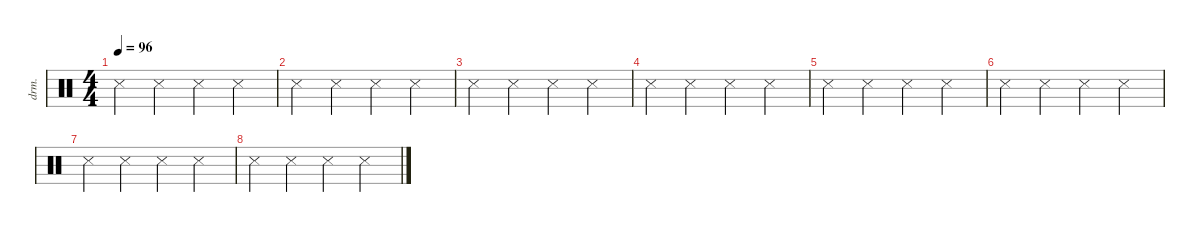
\defaultSystemsLayout 4
\hideDynamics
\bracketExtendMode nobrackets
\otherSystemsTrackNameOrientation horizontal
\track ("Drumkit" "drm.") {instrument percussion}
\staff {score}
\articulation defaults
\ts (4 4)
\tempo 96
\clef neutral
\ks c "Metronome (hit)".4{dy mf} "Metronome (hit)".4 "Metronome (hit)".4 "Metronome (hit)".4
|
"Metronome (hit)".4 "Metronome (hit)".4 "Metronome (hit)".4 "Metronome (hit)".4 |
"Metronome (hit)".4 "Metronome (hit)".4 "Metronome (hit)".4 "Metronome (hit)".4 |
"Metronome (hit)".4 "Metronome (hit)".4 "Metronome (hit)".4 "Metronome (hit)".4 |
"Metronome (hit)".4 "Metronome (hit)".4 "Metronome (hit)".4 "Metronome (hit)".4 |
"Metronome (hit)".4 "Metronome (hit)".4 "Metronome (hit)".4 "Metronome (hit)".4 |
"Metronome (hit)".4 "Metronome (hit)".4 "Metronome (hit)".4 "Metronome (hit)".4 |
"Metronome (hit)".4 "Metronome (hit)".4 "Metronome (hit)".4 "Metronome (hit)".4
